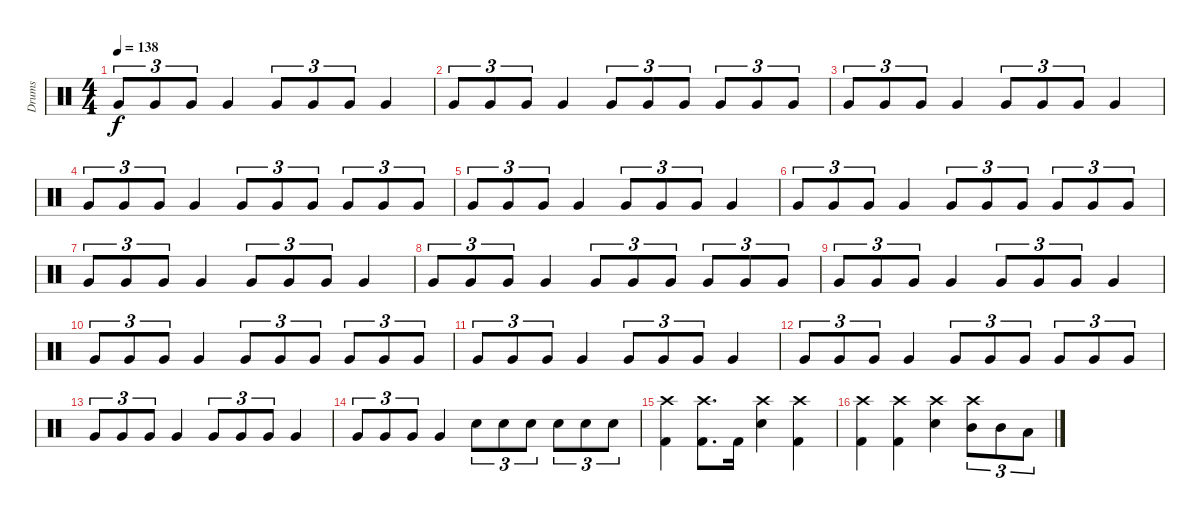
\track ("Drums" "Drums") {instrument percussion}
\staff {score}
\articulation defaults
\ts (4 4)
\tempo 138
\clef neutral
\ks c "Very Low Tom (hit)".8{tu (3 2) dy f} "Very Low Tom (hit)".8{tu (3 2)} "Very Low Tom (hit)".8{tu (3 2)} "Very Low Tom (hit)".4 "Very Low Tom (hit)".8{tu (3 2)} "Very Low Tom (hit)".8{tu (3 2)} "Very Low Tom (hit)".8{tu (3 2)} "Very Low Tom (hit)".4
|
"Very Low Tom (hit)".8{tu (3 2)} "Very Low Tom (hit)".8{tu (3 2)} "Very Low Tom (hit)".8{tu (3 2)} "Very Low Tom (hit)".4 "Very Low Tom (hit)".8{tu (3 2)} "Very Low Tom (hit)".8{tu (3 2)} "Very Low Tom (hit)".8{tu (3 2)} "Very Low Tom (hit)".8{tu (3 2)} "Very Low Tom (hit)".8{tu (3 2)} "Very Low Tom (hit)".8{tu (3 2)} |
"Very Low Tom (hit)".8{tu (3 2)} "Very Low Tom (hit)".8{tu (3 2)} "Very Low Tom (hit)".8{tu (3 2)} "Very Low Tom (hit)".4 "Very Low Tom (hit)".8{tu (3 2)} "Very Low Tom (hit)".8{tu (3 2)} "Very Low Tom (hit)".8{tu (3 2)} "Very Low Tom (hit)".4 |
"Very Low Tom (hit)".8{tu (3 2)} "Very Low Tom (hit)".8{tu (3 2)} "Very Low Tom (hit)".8{tu (3 2)} "Very Low Tom (hit)".4 "Very Low Tom (hit)".8{tu (3 2)} "Very Low Tom (hit)".8{tu (3 2)} "Very Low Tom (hit)".8{tu (3 2)} "Very Low Tom (hit)".8{tu (3 2)} "Very Low Tom (hit)".8{tu (3 2)} "Very Low Tom (hit)".8{tu (3 2)} |
"Very Low Tom (hit)".8{tu (3 2)} "Very Low Tom (hit)".8{tu (3 2)} "Very Low Tom (hit)".8{tu (3 2)} "Very Low Tom (hit)".4 "Very Low Tom (hit)".8{tu (3 2)} "Very Low Tom (hit)".8{tu (3 2)} "Very Low Tom (hit)".8{tu (3 2)} "Very Low Tom (hit)".4 |
"Very Low Tom (hit)".8{tu (3 2)} "Very Low Tom (hit)".8{tu (3 2)} "Very Low Tom (hit)".8{tu (3 2)} "Very Low Tom (hit)".4 "Very Low Tom (hit)".8{tu (3 2)} "Very Low Tom (hit)".8{tu (3 2)} "Very Low Tom (hit)".8{tu (3 2)} "Very Low Tom (hit)".8{tu (3 2)} "Very Low Tom (hit)".8{tu (3 2)} "Very Low Tom (hit)".8{tu (3 2)} |
"Very Low Tom (hit)".8{tu (3 2)} "Very Low Tom (hit)".8{tu (3 2)} "Very Low Tom (hit)".8{tu (3 2)} "Very Low Tom (hit)".4 "Very Low Tom (hit)".8{tu (3 2)} "Very Low Tom (hit)".8{tu (3 2)} "Very Low Tom (hit)".8{tu (3 2)} "Very Low Tom (hit)".4 |
"Very Low Tom (hit)".8{tu (3 2)} "Very Low Tom (hit)".8{tu (3 2)} "Very Low Tom (hit)".8{tu (3 2)} "Very Low Tom (hit)".4 "Very Low Tom (hit)".8{tu (3 2)} "Very Low Tom (hit)".8{tu (3 2)} "Very Low Tom (hit)".8{tu (3 2)} "Very Low Tom (hit)".8{tu (3 2)} "Very Low Tom (hit)".8{tu (3 2)} "Very Low Tom (hit)".8{tu (3 2)} |
"Very Low Tom (hit)".8{tu (3 2)} "Very Low Tom (hit)".8{tu (3 2)} "Very Low Tom (hit)".8{tu (3 2)} "Very Low Tom (hit)".4 "Very Low Tom (hit)".8{tu (3 2)} "Very Low Tom (hit)".8{tu (3 2)} "Very Low Tom (hit)".8{tu (3 2)} "Very Low Tom (hit)".4 |
"Very Low Tom (hit)".8{tu (3 2)} "Very Low Tom (hit)".8{tu (3 2)} "Very Low Tom (hit)".8{tu (3 2)} "Very Low Tom (hit)".4 "Very Low Tom (hit)".8{tu (3 2)} "Very Low Tom (hit)".8{tu (3 2)} "Very Low Tom (hit)".8{tu (3 2)} "Very Low Tom (hit)".8{tu (3 2)} "Very Low Tom (hit)".8{tu (3 2)} "Very Low Tom (hit)".8{tu (3 2)} |
"Very Low Tom (hit)".8{tu (3 2)} "Very Low Tom (hit)".8{tu (3 2)} "Very Low Tom (hit)".8{tu (3 2)} "Very Low Tom (hit)".4 "Very Low Tom (hit)".8{tu (3 2)} "Very Low Tom (hit)".8{tu (3 2)} "Very Low Tom (hit)".8{tu (3 2)} "Very Low Tom (hit)".4 |
"Very Low Tom (hit)".8{tu (3 2)} "Very Low Tom (hit)".8{tu (3 2)} "Very Low Tom (hit)".8{tu (3 2)} "Very Low Tom (hit)".4 "Very Low Tom (hit)".8{tu (3 2)} "Very Low Tom (hit)".8{tu (3 2)} "Very Low Tom (hit)".8{tu (3 2)} "Very Low Tom (hit)".8{tu (3 2)} "Very Low Tom (hit)".8{tu (3 2)} "Very Low Tom (hit)".8{tu (3 2)} |
"Very Low Tom (hit)".8{tu (3 2)} "Very Low Tom (hit)".8{tu (3 2)} "Very Low Tom (hit)".8{tu (3 2)} "Very Low Tom (hit)".4 "Very Low Tom (hit)".8{tu (3 2)} "Very Low Tom (hit)".8{tu (3 2)} "Very Low Tom (hit)".8{tu (3 2)} "Very Low Tom (hit)".4 |
"Very Low Tom (hit)".8{tu (3 2)} "Very Low Tom (hit)".8{tu (3 2)} "Very Low Tom (hit)".8{tu (3 2)} "Very Low Tom (hit)".4 "Snare (hit) 2".8{tu (3 2)} "Snare (hit) 2".8{tu (3 2)} "Snare (hit) 2".8{tu (3 2)} "Snare (hit) 2".8{tu (3 2)} "Snare (hit) 2".8{tu (3 2)} "Snare (hit) 2".8{tu (3 2)} |
("Crash high (hit)" "Kick (hit) 2").4 ("Crash high (hit)" "Kick (hit) 2").8{d} "Kick (hit) 2".16 ("Crash high (hit)" "Snare (hit) 2").4 ("Crash high (hit)" "Kick (hit) 2").4 |
("Crash high (hit)" "Kick (hit) 2").4 ("Crash high (hit)" "Kick (hit) 2").4 ("Crash high (hit)" "Snare (hit) 2").4 ("Crash high (hit)" "Mid Tom (hit)").8{tu (3 2)} "Mid Tom (hit)".8{tu (3 2)} "Low Tom (hit)".8{tu (3 2)}
